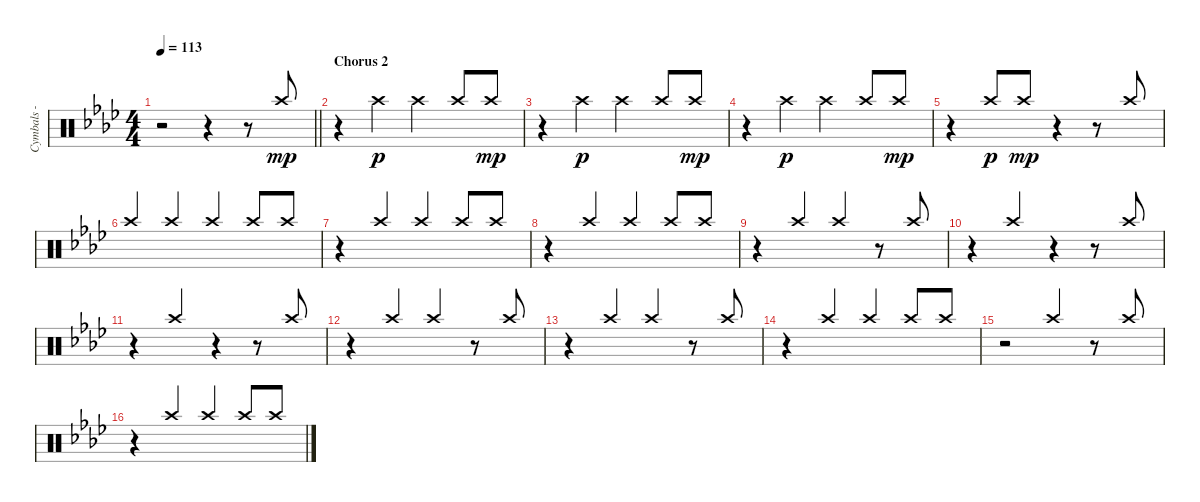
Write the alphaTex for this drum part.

\track ("Cymbals - crash" "Cymbals - ") {instrument percussion}
\staff {score}
\articulation defaults
\ts (4 4)
\tempo 113
\clef neutral
\barLineRight lightlight
\ks fminor
r.2{dy mp} r.4 r.8 "Crash high (hit)".8{beam Up} |
\section ("" "Chorus 2")
r.4 "Crash high (hit)".4{dy p balance 6} "Crash high (hit)".4 "Crash high (hit)".8 "Crash high (hit)".8{dy mp balance 8 beam Up} |
r.4 "Crash high (hit)".4{dy p balance 5} "Crash high (hit)".4 "Crash high (hit)".8 "Crash high (hit)".8{dy mp balance 8 beam Up} |
r.4 "Crash high (hit)".4{dy p balance 5} "Crash high (hit)".4 "Crash high (hit)".8 "Crash high (hit)".8{dy mp balance 8 beam Up} |
r.4 "Crash high (hit)".8{dy p balance 5 beam Up} "Crash high (hit)".8{dy mp balance 8 beam Up} r.4 r.8 "Crash high (hit)".8{beam Up} |
"Crash high (hit)".4{balance 5 beam Up} "Crash high (hit)".4{beam Up} "Crash high (hit)".4{beam Up} "Crash high (hit)".8{beam Up} "Crash high (hit)".8{balance 8 beam Up} |
r.4 "Crash high (hit)".4{balance 5 beam Up} "Crash high (hit)".4{beam Up} "Crash high (hit)".8{beam Up} "Crash high (hit)".8{balance 8 beam Up} |
r.4 "Crash high (hit)".4{balance 5 beam Up} "Crash high (hit)".4{beam Up} "Crash high (hit)".8{beam Up} "Crash high (hit)".8{balance 8 beam Up} |
r.4 "Crash high (hit)".4{balance 5 beam Up} "Crash high (hit)".4{beam Up} r.8 "Crash high (hit)".8{balance 8 beam Up} |
r.4 "Crash high (hit)".4{beam Up} r.4 r.8 "Crash high (hit)".8{beam Up} |
r.4 "Crash high (hit)".4{beam Up} r.4 r.8 "Crash high (hit)".8{beam Up} |
r.4 "Crash high (hit)".4{beam Up} "Crash high (hit)".4{beam Up} r.8 "Crash high (hit)".8{beam Up} |
r.4 "Crash high (hit)".4{beam Up} "Crash high (hit)".4{beam Up} r.8 "Crash high (hit)".8{beam Up} |
r.4 "Crash high (hit)".4{beam Up} "Crash high (hit)".4{beam Up} "Crash high (hit)".8{beam Up} "Crash high (hit)".8{beam Up} |
r.2 "Crash high (hit)".4{beam Up} r.8 "Crash high (hit)".8{beam Up} |
r.4 "Crash high (hit)".4{beam Up} "Crash high (hit)".4{beam Up} "Crash high (hit)".8{beam Up} "Crash high (hit)".8{beam Up}
